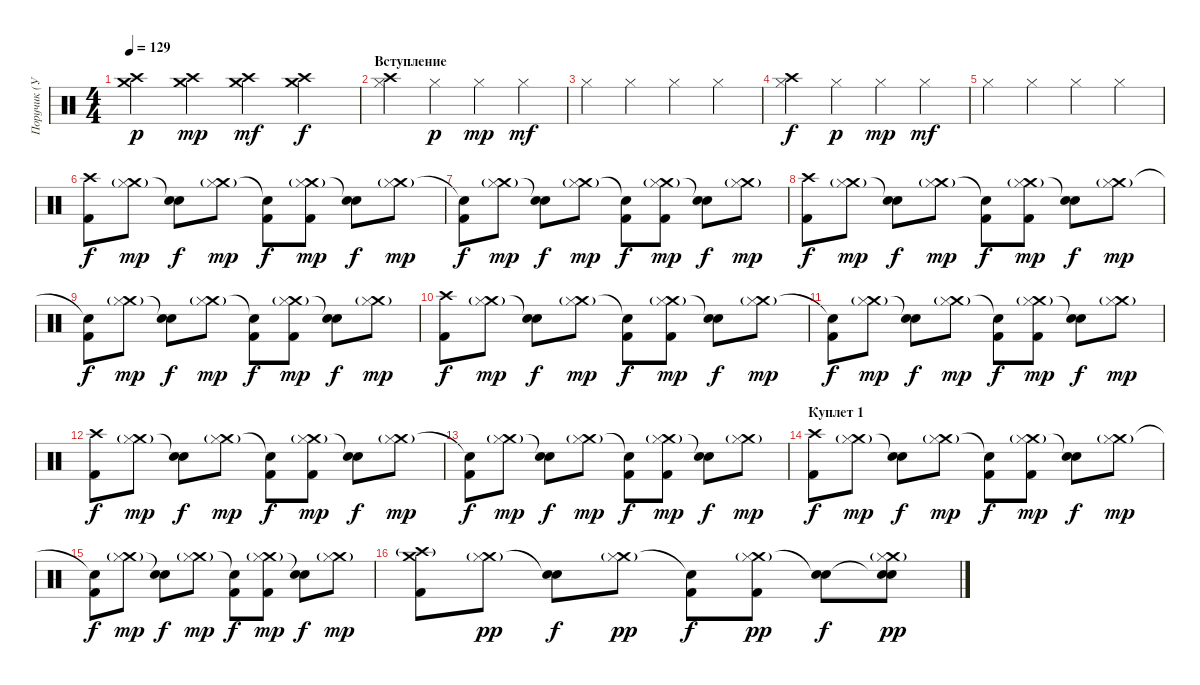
\track ("Поручик (Ударные)" "Поручик (У") {instrument percussion}
\staff {score}
\articulation defaults
\ts (4 4)
\tempo 129
\clef neutral
\ks c
("Crash high (hit)" "Crash medium (hit)").4{dy p} ("Crash high (hit)" "Crash medium (hit)").4{dy mp} ("Crash high (hit)" "Crash medium (hit)").4{dy mf} ("Crash high (hit)" "Crash medium (hit)").4{dy f} |
\section ("" "Вступление")
("Crash high (hit)" "Hi-Hat (closed)").4 "Hi-Hat (closed)".4{dy p} "Hi-Hat (closed)".4{dy mp} "Hi-Hat (closed)".4{dy mf} |
"Hi-Hat (closed)".4 "Hi-Hat (closed)".4 "Hi-Hat (closed)".4 "Hi-Hat (closed)".4 |
("Crash high (hit)" "Hi-Hat (closed)").4{dy f} "Hi-Hat (closed)".4{dy p} "Hi-Hat (closed)".4{dy mp} "Hi-Hat (closed)".4{dy mf} |
"Hi-Hat (closed)".4 "Hi-Hat (closed)".4 "Hi-Hat (closed)".4 "Hi-Hat (closed)".4 |
("Kick (hit) 2" "Crash high (hit)").8{dy f} ("Crash medium (hit)"{g} "Hi-Hat (closed)").8{dy mp} ("Snare (hit) 2" "Snare (hit)"{t}).8{dy f} ("Crash medium (hit)"{g} "Hi-Hat (closed)").8{dy mp} ("Kick (hit) 2" "Snare (hit)"{t}).8{dy f} ("Kick (hit) 2" "Crash medium (hit)"{g} "Hi-Hat (closed)").8{dy mp} ("Snare (hit) 2" "Snare (hit)"{t}).8{dy f} ("Crash medium (hit)"{g} "Hi-Hat (closed)").8{dy mp} |
("Kick (hit) 2" "Snare (hit)"{t}).8{dy f} ("Crash medium (hit)"{g} "Hi-Hat (closed)").8{dy mp} ("Snare (hit) 2" "Snare (hit)"{t}).8{dy f} ("Crash medium (hit)"{g} "Hi-Hat (closed)").8{dy mp} ("Kick (hit) 2" "Snare (hit)"{t}).8{dy f} ("Kick (hit) 2" "Crash medium (hit)"{g} "Hi-Hat (closed)").8{dy mp} ("Snare (hit) 2" "Snare (hit)"{t}).8{dy f} ("Crash medium (hit)"{g} "Hi-Hat (closed)").8{dy mp} |
("Kick (hit) 2" "Crash high (hit)").8{dy f} ("Crash medium (hit)"{g} "Hi-Hat (closed)").8{dy mp} ("Snare (hit) 2" "Snare (hit)"{t}).8{dy f} ("Crash medium (hit)"{g} "Hi-Hat (closed)").8{dy mp} ("Kick (hit) 2" "Snare (hit)"{t}).8{dy f} ("Kick (hit) 2" "Crash medium (hit)"{g} "Hi-Hat (closed)").8{dy mp} ("Snare (hit) 2" "Snare (hit)"{t}).8{dy f} ("Crash medium (hit)"{g} "Hi-Hat (closed)").8{dy mp} |
("Kick (hit) 2" "Snare (hit)"{t}).8{dy f} ("Crash medium (hit)"{g} "Hi-Hat (closed)").8{dy mp} ("Snare (hit) 2" "Snare (hit)"{t}).8{dy f} ("Crash medium (hit)"{g} "Hi-Hat (closed)").8{dy mp} ("Kick (hit) 2" "Snare (hit)"{t}).8{dy f} ("Kick (hit) 2" "Crash medium (hit)"{g} "Hi-Hat (closed)").8{dy mp} ("Snare (hit) 2" "Snare (hit)"{t}).8{dy f} ("Crash medium (hit)"{g} "Hi-Hat (closed)").8{dy mp} |
("Kick (hit) 2" "Crash high (hit)").8{dy f} ("Crash medium (hit)"{g} "Hi-Hat (closed)").8{dy mp} ("Snare (hit) 2" "Snare (hit)"{t}).8{dy f} ("Crash medium (hit)"{g} "Hi-Hat (closed)").8{dy mp} ("Kick (hit) 2" "Snare (hit)"{t}).8{dy f} ("Kick (hit) 2" "Crash medium (hit)"{g} "Hi-Hat (closed)").8{dy mp} ("Snare (hit) 2" "Snare (hit)"{t}).8{dy f} ("Crash medium (hit)"{g} "Hi-Hat (closed)").8{dy mp} |
("Kick (hit) 2" "Snare (hit)"{t}).8{dy f} ("Crash medium (hit)"{g} "Hi-Hat (closed)").8{dy mp} ("Snare (hit) 2" "Snare (hit)"{t}).8{dy f} ("Crash medium (hit)"{g} "Hi-Hat (closed)").8{dy mp} ("Kick (hit) 2" "Snare (hit)"{t}).8{dy f} ("Kick (hit) 2" "Crash medium (hit)"{g} "Hi-Hat (closed)").8{dy mp} ("Snare (hit) 2" "Snare (hit)"{t}).8{dy f} ("Crash medium (hit)"{g} "Hi-Hat (closed)").8{dy mp} |
("Kick (hit) 2" "Crash high (hit)").8{dy f} ("Crash medium (hit)"{g} "Hi-Hat (closed)").8{dy mp} ("Snare (hit) 2" "Snare (hit)"{t}).8{dy f} ("Crash medium (hit)"{g} "Hi-Hat (closed)").8{dy mp} ("Kick (hit) 2" "Snare (hit)"{t}).8{dy f} ("Kick (hit) 2" "Crash medium (hit)"{g} "Hi-Hat (closed)").8{dy mp} ("Snare (hit) 2" "Snare (hit)"{t}).8{dy f} ("Crash medium (hit)"{g} "Hi-Hat (closed)").8{dy mp} |
("Kick (hit) 2" "Snare (hit)"{t}).8{dy f} ("Crash medium (hit)"{g} "Hi-Hat (closed)").8{dy mp} ("Snare (hit) 2" "Snare (hit)"{t}).8{dy f} ("Crash medium (hit)"{g} "Hi-Hat (closed)").8{dy mp} ("Kick (hit) 2" "Snare (hit)"{t}).8{dy f} ("Kick (hit) 2" "Crash medium (hit)"{g} "Hi-Hat (closed)").8{dy mp} ("Snare (hit) 2" "Snare (hit)"{t}).8{dy f} ("Crash medium (hit)"{g} "Hi-Hat (closed)").8{dy mp} |
\section ("" "Куплет 1")
("Kick (hit) 2" "Crash high (hit)").8{dy f} ("Crash medium (hit)"{g} "Hi-Hat (closed)").8{dy mp} ("Snare (hit) 2" "Snare (hit)"{t}).8{dy f} ("Crash medium (hit)"{g} "Hi-Hat (closed)").8{dy mp} ("Kick (hit) 2" "Snare (hit)"{t}).8{dy f} ("Kick (hit) 2" "Crash medium (hit)"{g} "Hi-Hat (closed)").8{dy mp} ("Snare (hit) 2" "Snare (hit)"{t}).8{dy f} ("Crash medium (hit)"{g} "Hi-Hat (closed)").8{dy mp} |
("Kick (hit) 2" "Snare (hit)"{t}).8{dy f} ("Crash medium (hit)"{g} "Hi-Hat (closed)").8{dy mp} ("Snare (hit) 2" "Snare (hit)"{t}).8{dy f} ("Crash medium (hit)"{g} "Hi-Hat (closed)").8{dy mp} ("Kick (hit) 2" "Snare (hit)"{t}).8{dy f} ("Kick (hit) 2" "Crash medium (hit)"{g} "Hi-Hat (closed)").8{dy mp} ("Snare (hit) 2" "Snare (hit)"{t}).8{dy f} ("Crash medium (hit)"{g} "Hi-Hat (closed)").8{dy mp} |
("Kick (hit) 2" "Crash medium (hit)" "Crash high (hit)"{g}).8 ("Crash medium (hit)"{g} "Hi-Hat (closed)").8{dy pp} ("Snare (hit) 2" "Snare (hit)"{t}).8{dy f} ("Crash medium (hit)"{g} "Hi-Hat (closed)").8{dy pp} ("Kick (hit) 2" "Snare (hit)"{t}).8{dy f} ("Kick (hit) 2" "Crash medium (hit)"{g} "Hi-Hat (closed)").8{dy pp} ("Snare (hit) 2" "Snare (hit)"{t}).8{dy f} ("Crash medium (hit)"{g} "Snare (hit)"{t} "Hi-Hat (closed)" "Snare (hit)").8{dy pp}
